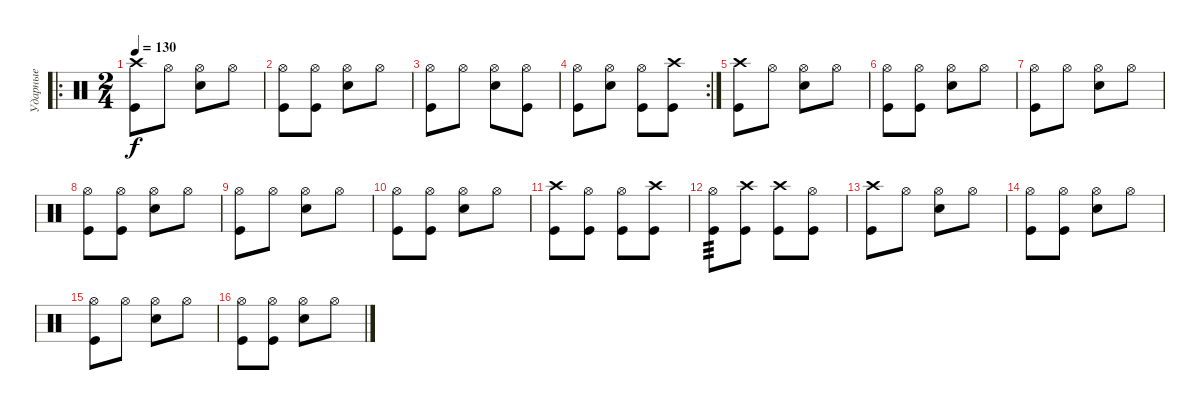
\track ("Ударные" "Ударные") {instrument percussion}
\staff {score}
\articulation defaults
\ro
\ts (2 4)
\tempo 130
\clef neutral
\ks c
("Crash high (hit)" "Kick (hit)").8{dy f} "Hi-Hat (open)".8 ("Hi-Hat (open)" "Snare (hit) 2").8 "Hi-Hat (open)".8 |
("Hi-Hat (open)" "Kick (hit)").8 ("Hi-Hat (open)" "Kick (hit)").8 ("Hi-Hat (open)" "Snare (hit) 2").8 "Hi-Hat (open)".8 |
("Hi-Hat (open)" "Kick (hit)").8 "Hi-Hat (open)".8 ("Hi-Hat (open)" "Snare (hit) 2").8 ("Hi-Hat (open)" "Kick (hit)").8 |
\rc 2
("Hi-Hat (open)" "Kick (hit)").8 ("Hi-Hat (open)" "Snare (hit) 2").8 ("Hi-Hat (open)" "Kick (hit)").8 ("Crash high (hit)" "Kick (hit)").8 |
("Crash high (hit)" "Kick (hit)").8 "Hi-Hat (open)".8 ("Hi-Hat (open)" "Snare (hit) 2").8 "Hi-Hat (open)".8 |
("Hi-Hat (open)" "Kick (hit)").8 ("Hi-Hat (open)" "Kick (hit)").8 ("Hi-Hat (open)" "Snare (hit) 2").8 "Hi-Hat (open)".8 |
("Hi-Hat (open)" "Kick (hit)").8 "Hi-Hat (open)".8 ("Hi-Hat (open)" "Snare (hit) 2").8 "Hi-Hat (open)".8 |
("Hi-Hat (open)" "Kick (hit)").8 ("Hi-Hat (open)" "Kick (hit)").8 ("Hi-Hat (open)" "Snare (hit) 2").8 "Hi-Hat (open)".8 |
("Hi-Hat (open)" "Kick (hit)").8 "Hi-Hat (open)".8 ("Hi-Hat (open)" "Snare (hit) 2").8 "Hi-Hat (open)".8 |
("Hi-Hat (open)" "Kick (hit)").8 ("Hi-Hat (open)" "Kick (hit)").8 ("Hi-Hat (open)" "Snare (hit) 2").8 "Hi-Hat (open)".8 |
("Crash high (hit)" "Kick (hit)").8 ("Hi-Hat (open)" "Kick (hit)").8 ("Hi-Hat (open)" "Kick (hit)").8 ("Crash high (hit)" "Kick (hit)").8 |
("Hi-Hat (open)" "Kick (hit)").8{tp 3} ("Crash high (hit)" "Kick (hit)").8 ("Crash high (hit)" "Kick (hit)").8 ("Hi-Hat (open)" "Kick (hit)").8 |
("Crash high (hit)" "Kick (hit)").8 "Hi-Hat (open)".8 ("Hi-Hat (open)" "Snare (hit) 2").8 "Hi-Hat (open)".8 |
("Hi-Hat (open)" "Kick (hit)").8 ("Hi-Hat (open)" "Kick (hit)").8 ("Hi-Hat (open)" "Snare (hit) 2").8 "Hi-Hat (open)".8 |
("Hi-Hat (open)" "Kick (hit)").8 "Hi-Hat (open)".8 ("Hi-Hat (open)" "Snare (hit) 2").8 "Hi-Hat (open)".8 |
("Hi-Hat (open)" "Kick (hit)").8 ("Hi-Hat (open)" "Kick (hit)").8 ("Hi-Hat (open)" "Snare (hit) 2").8 "Hi-Hat (open)".8
